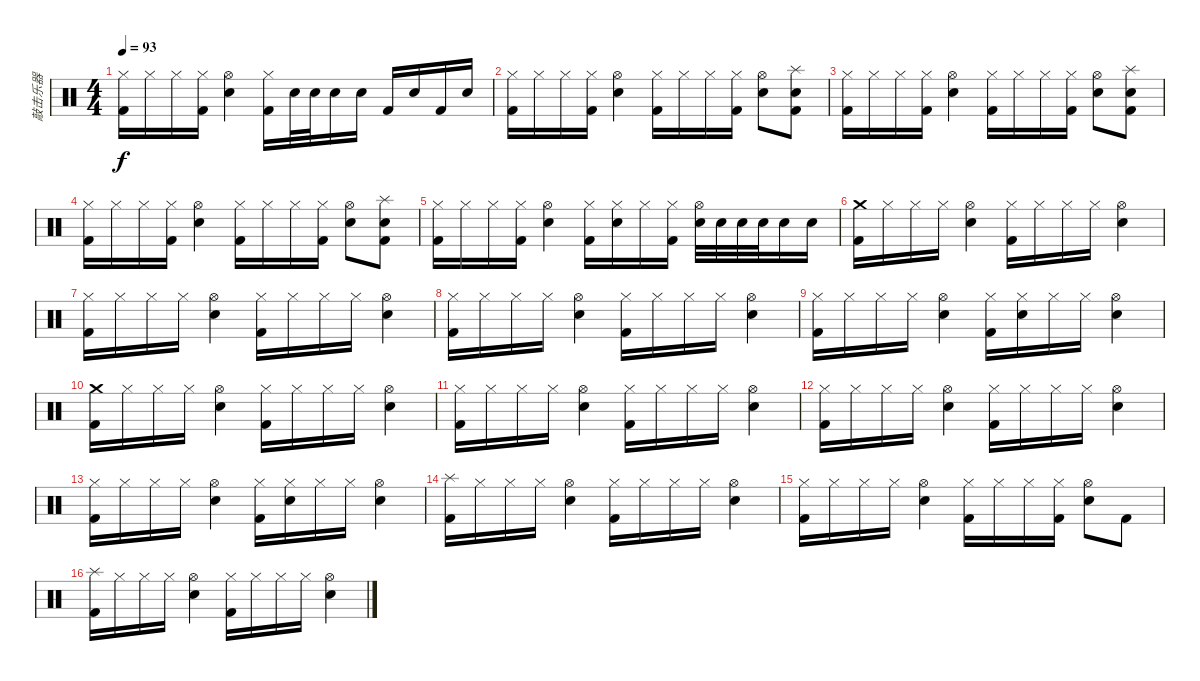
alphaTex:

\track ("敲击乐器" "敲击乐器") {instrument percussion}
\staff {score}
\articulation defaults
\ts (4 4)
\tempo 93
\clef neutral
\ks c
("Hi-Hat (closed)" "Kick (hit) 2").16{dy f} "Hi-Hat (closed)".16 "Hi-Hat (closed)".16 ("Hi-Hat (closed)" "Kick (hit) 2").16 ("Hi-Hat (open)" "Metronome (bell)").4 ("Hi-Hat (closed)" "Kick (hit) 2").16 "Metronome (bell)".32 "Metronome (bell)".32 "Metronome (bell)".16 "Metronome (bell)".16 "Kick (hit) 2".16 "Metronome (bell)".16 "Kick (hit) 2".16 "Metronome (bell)".16 |
("Hi-Hat (closed)" "Kick (hit) 2").16 "Hi-Hat (closed)".16 "Hi-Hat (closed)".16 ("Hi-Hat (closed)" "Kick (hit) 2").16 ("Hi-Hat (open)" "Metronome (bell)").4 ("Hi-Hat (closed)" "Kick (hit) 2").16 "Hi-Hat (closed)".16 "Hi-Hat (closed)".16 ("Hi-Hat (closed)" "Kick (hit) 2").16 ("Hi-Hat (open)" "Metronome (bell)").8 ("Splash (hit)" "Metronome (bell)" "Kick (hit) 2").8 |
("Hi-Hat (closed)" "Kick (hit) 2").16 "Hi-Hat (closed)".16 "Hi-Hat (closed)".16 ("Hi-Hat (closed)" "Kick (hit) 2").16 ("Hi-Hat (open)" "Metronome (bell)").4 ("Hi-Hat (closed)" "Kick (hit) 2").16 "Hi-Hat (closed)".16 "Hi-Hat (closed)".16 ("Hi-Hat (closed)" "Kick (hit) 2").16 ("Hi-Hat (open)" "Metronome (bell)").8 ("Splash (hit)" "Metronome (bell)" "Kick (hit) 2").8 |
("Hi-Hat (closed)" "Kick (hit) 2").16 "Hi-Hat (closed)".16 "Hi-Hat (closed)".16 ("Hi-Hat (closed)" "Kick (hit) 2").16 ("Hi-Hat (open)" "Metronome (bell)").4 ("Hi-Hat (closed)" "Kick (hit) 2").16 "Hi-Hat (closed)".16 "Hi-Hat (closed)".16 ("Hi-Hat (closed)" "Kick (hit) 2").16 ("Hi-Hat (open)" "Metronome (bell)").8 ("Splash (hit)" "Metronome (bell)" "Kick (hit) 2").8 |
("Hi-Hat (closed)" "Kick (hit) 2").16 "Hi-Hat (closed)".16 "Hi-Hat (closed)".16 ("Hi-Hat (closed)" "Kick (hit) 2").16 ("Hi-Hat (open)" "Metronome (bell)").4 ("Hi-Hat (closed)" "Kick (hit) 2").16 ("Hi-Hat (closed)" "Metronome (bell)").16 "Hi-Hat (closed)".16 ("Hi-Hat (closed)" "Kick (hit) 2").16 ("Hi-Hat (open)" "Metronome (bell)").32 "Metronome (bell)".32 "Metronome (bell)".32 "Metronome (bell)".32 "Metronome (bell)".16 "Metronome (bell)".16 |
("Crash medium (hit)" "Kick (hit) 2").16 "Hi-Hat (closed)".16 "Hi-Hat (closed)".16 "Hi-Hat (closed)".16 ("Hi-Hat (open)" "Metronome (bell)").4 ("Hi-Hat (closed)" "Kick (hit) 2").16 "Hi-Hat (closed)".16 "Hi-Hat (closed)".16 "Hi-Hat (closed)".16 ("Hi-Hat (open)" "Metronome (bell)").4 |
("Hi-Hat (closed)" "Kick (hit) 2").16 "Hi-Hat (closed)".16 "Hi-Hat (closed)".16 "Hi-Hat (closed)".16 ("Hi-Hat (open)" "Metronome (bell)").4 ("Hi-Hat (closed)" "Kick (hit) 2").16 "Hi-Hat (closed)".16 "Hi-Hat (closed)".16 "Hi-Hat (closed)".16 ("Hi-Hat (open)" "Metronome (bell)").4 |
("Hi-Hat (closed)" "Kick (hit) 2").16 "Hi-Hat (closed)".16 "Hi-Hat (closed)".16 "Hi-Hat (closed)".16 ("Hi-Hat (open)" "Metronome (bell)").4 ("Hi-Hat (closed)" "Kick (hit) 2").16 "Hi-Hat (closed)".16 "Hi-Hat (closed)".16 "Hi-Hat (closed)".16 ("Hi-Hat (open)" "Metronome (bell)").4 |
("Hi-Hat (closed)" "Kick (hit) 2").16 "Hi-Hat (closed)".16 "Hi-Hat (closed)".16 "Hi-Hat (closed)".16 ("Hi-Hat (open)" "Metronome (bell)").4 ("Hi-Hat (closed)" "Kick (hit) 2").16 ("Hi-Hat (closed)" "Metronome (bell)").16 "Hi-Hat (closed)".16 "Hi-Hat (closed)".16 ("Hi-Hat (open)" "Metronome (bell)").4 |
("Crash medium (hit)" "Kick (hit) 2").16 "Hi-Hat (closed)".16 "Hi-Hat (closed)".16 "Hi-Hat (closed)".16 ("Hi-Hat (open)" "Metronome (bell)").4 ("Hi-Hat (closed)" "Kick (hit) 2").16 "Hi-Hat (closed)".16 "Hi-Hat (closed)".16 "Hi-Hat (closed)".16 ("Hi-Hat (open)" "Metronome (bell)").4 |
("Hi-Hat (closed)" "Kick (hit) 2").16 "Hi-Hat (closed)".16 "Hi-Hat (closed)".16 "Hi-Hat (closed)".16 ("Hi-Hat (open)" "Metronome (bell)").4 ("Hi-Hat (closed)" "Kick (hit) 2").16 "Hi-Hat (closed)".16 "Hi-Hat (closed)".16 "Hi-Hat (closed)".16 ("Hi-Hat (open)" "Metronome (bell)").4 |
("Hi-Hat (closed)" "Kick (hit) 2").16 "Hi-Hat (closed)".16 "Hi-Hat (closed)".16 "Hi-Hat (closed)".16 ("Hi-Hat (open)" "Metronome (bell)").4 ("Hi-Hat (closed)" "Kick (hit) 2").16 "Hi-Hat (closed)".16 "Hi-Hat (closed)".16 "Hi-Hat (closed)".16 ("Hi-Hat (open)" "Metronome (bell)").4 |
("Hi-Hat (closed)" "Kick (hit) 2").16 "Hi-Hat (closed)".16 "Hi-Hat (closed)".16 "Hi-Hat (closed)".16 ("Hi-Hat (open)" "Metronome (bell)").4 ("Hi-Hat (closed)" "Kick (hit) 2").16 ("Hi-Hat (closed)" "Metronome (bell)").16 "Hi-Hat (closed)".16 "Hi-Hat (closed)".16 ("Hi-Hat (open)" "Metronome (bell)").4 |
("Splash (hit)" "Kick (hit) 2").16 "Hi-Hat (closed)".16 "Hi-Hat (closed)".16 "Hi-Hat (closed)".16 ("Hi-Hat (open)" "Metronome (bell)").4 ("Hi-Hat (closed)" "Kick (hit) 2").16 "Hi-Hat (closed)".16 "Hi-Hat (closed)".16 "Hi-Hat (closed)".16 ("Hi-Hat (open)" "Metronome (bell)").4 |
("Hi-Hat (closed)" "Kick (hit) 2").16 "Hi-Hat (closed)".16 "Hi-Hat (closed)".16 "Hi-Hat (closed)".16 ("Hi-Hat (open)" "Metronome (bell)").4 ("Hi-Hat (closed)" "Kick (hit) 2").16 "Hi-Hat (closed)".16 "Hi-Hat (closed)".16 ("Hi-Hat (closed)" "Kick (hit) 2").16 ("Hi-Hat (open)" "Metronome (bell)").8 "Kick (hit) 2".8 |
("Splash (hit)" "Kick (hit) 2").16 "Hi-Hat (closed)".16 "Hi-Hat (closed)".16 "Hi-Hat (closed)".16 ("Hi-Hat (open)" "Metronome (bell)").4 ("Hi-Hat (closed)" "Kick (hit) 2").16 "Hi-Hat (closed)".16 "Hi-Hat (closed)".16 "Hi-Hat (closed)".16 ("Hi-Hat (open)" "Metronome (bell)").4
